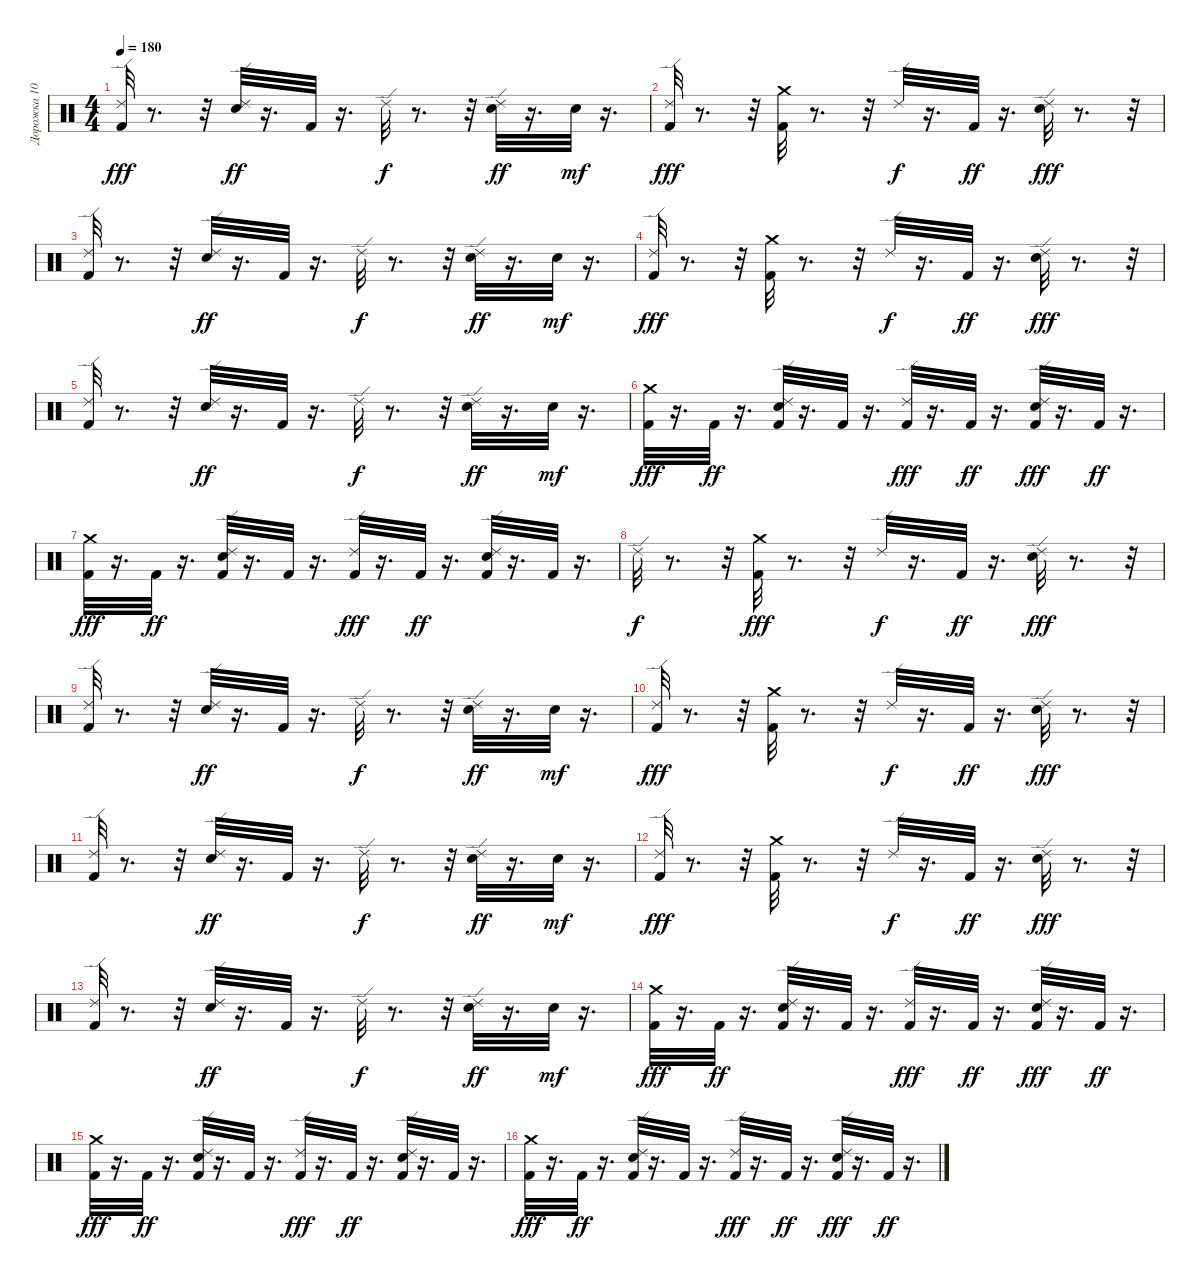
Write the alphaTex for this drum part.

\track ("Дорожка 10" "Дорожка 10") {instrument percussion}
\staff {score}
\articulation defaults
\ts (4 4)
\tempo 180
\clef neutral
\ks c
("Kick (hit) 2" "Ride (edge) 2").32{dy fff} r.8{d} r.32 ("Snare (hit) 2" "Ride (edge) 2").32{dy ff} r.16{d} "Kick (hit) 2".32 r.16{d} "Ride (edge) 2".32{dy f} r.8{d} r.32 ("Snare (hit) 2" "Ride (edge) 2").32{dy ff} r.16{d} "Snare (hit) 2".32{dy mf} r.16{d} |
("Ride (edge) 2" "Kick (hit) 2").32{dy fff} r.8{d} r.32 ("Kick (hit) 2" "Crash medium (hit)").32 r.8{d} r.32 "Ride (edge) 2".32{dy f} r.16{d} "Kick (hit) 2".32{dy ff} r.16{d} ("Snare (hit) 2" "Ride (edge) 2").32{dy fff} r.8{d} r.32 |
("Kick (hit) 2" "Ride (edge) 2").32 r.8{d} r.32 ("Snare (hit) 2" "Ride (edge) 2").32{dy ff} r.16{d} "Kick (hit) 2".32 r.16{d} "Ride (edge) 2".32{dy f} r.8{d} r.32 ("Snare (hit) 2" "Ride (edge) 2").32{dy ff} r.16{d} "Snare (hit) 2".32{dy mf} r.16{d} |
("Ride (edge) 2" "Kick (hit) 2").32{dy fff} r.8{d} r.32 ("Kick (hit) 2" "Crash medium (hit)").32 r.8{d} r.32 "Ride (edge) 2".32{dy f} r.16{d} "Kick (hit) 2".32{dy ff} r.16{d} ("Snare (hit) 2" "Ride (edge) 2").32{dy fff} r.8{d} r.32 |
("Kick (hit) 2" "Ride (edge) 2").32 r.8{d} r.32 ("Snare (hit) 2" "Ride (edge) 2").32{dy ff} r.16{d} "Kick (hit) 2".32 r.16{d} "Ride (edge) 2".32{dy f} r.8{d} r.32 ("Snare (hit) 2" "Ride (edge) 2").32{dy ff} r.16{d} "Snare (hit) 2".32{dy mf} r.16{d} |
("Crash medium (hit)" "Kick (hit) 2").32{dy fff} r.16{d} "Kick (hit) 2".32{dy ff} r.16{d} ("Kick (hit) 2" "Snare (hit) 2" "Ride (edge) 2").32 r.16{d} "Kick (hit) 2".32 r.16{d} ("Kick (hit) 2" "Ride (edge) 2").32{dy fff} r.16{d} "Kick (hit) 2".32{dy ff} r.16{d} ("Kick (hit) 2" "Snare (hit) 2" "Ride (edge) 2").32{dy fff} r.16{d} "Kick (hit) 2".32{dy ff} r.16{d} |
("Kick (hit) 2" "Crash medium (hit)").32{dy fff} r.16{d} "Kick (hit) 2".32{dy ff} r.16{d} ("Kick (hit) 2" "Snare (hit) 2" "Ride (edge) 2").32 r.16{d} "Kick (hit) 2".32 r.16{d} ("Kick (hit) 2" "Ride (edge) 2").32{dy fff} r.16{d} "Kick (hit) 2".32{dy ff} r.16{d} ("Kick (hit) 2" "Snare (hit) 2" "Ride (edge) 2").32 r.16{d} "Kick (hit) 2".32 r.16{d} |
"Ride (edge) 2".32{dy f} r.8{d} r.32 ("Kick (hit) 2" "Crash medium (hit)").32{dy fff} r.8{d} r.32 "Ride (edge) 2".32{dy f} r.16{d} "Kick (hit) 2".32{dy ff} r.16{d} ("Snare (hit) 2" "Ride (edge) 2").32{dy fff} r.8{d} r.32 |
("Kick (hit) 2" "Ride (edge) 2").32 r.8{d} r.32 ("Snare (hit) 2" "Ride (edge) 2").32{dy ff} r.16{d} "Kick (hit) 2".32 r.16{d} "Ride (edge) 2".32{dy f} r.8{d} r.32 ("Snare (hit) 2" "Ride (edge) 2").32{dy ff} r.16{d} "Snare (hit) 2".32{dy mf} r.16{d} |
("Ride (edge) 2" "Kick (hit) 2").32{dy fff} r.8{d} r.32 ("Kick (hit) 2" "Crash medium (hit)").32 r.8{d} r.32 "Ride (edge) 2".32{dy f} r.16{d} "Kick (hit) 2".32{dy ff} r.16{d} ("Snare (hit) 2" "Ride (edge) 2").32{dy fff} r.8{d} r.32 |
("Kick (hit) 2" "Ride (edge) 2").32 r.8{d} r.32 ("Snare (hit) 2" "Ride (edge) 2").32{dy ff} r.16{d} "Kick (hit) 2".32 r.16{d} "Ride (edge) 2".32{dy f} r.8{d} r.32 ("Snare (hit) 2" "Ride (edge) 2").32{dy ff} r.16{d} "Snare (hit) 2".32{dy mf} r.16{d} |
("Ride (edge) 2" "Kick (hit) 2").32{dy fff} r.8{d} r.32 ("Kick (hit) 2" "Crash medium (hit)").32 r.8{d} r.32 "Ride (edge) 2".32{dy f} r.16{d} "Kick (hit) 2".32{dy ff} r.16{d} ("Snare (hit) 2" "Ride (edge) 2").32{dy fff} r.8{d} r.32 |
("Kick (hit) 2" "Ride (edge) 2").32 r.8{d} r.32 ("Snare (hit) 2" "Ride (edge) 2").32{dy ff} r.16{d} "Kick (hit) 2".32 r.16{d} "Ride (edge) 2".32{dy f} r.8{d} r.32 ("Snare (hit) 2" "Ride (edge) 2").32{dy ff} r.16{d} "Snare (hit) 2".32{dy mf} r.16{d} |
("Crash medium (hit)" "Kick (hit) 2").32{dy fff} r.16{d} "Kick (hit) 2".32{dy ff} r.16{d} ("Kick (hit) 2" "Snare (hit) 2" "Ride (edge) 2").32 r.16{d} "Kick (hit) 2".32 r.16{d} ("Kick (hit) 2" "Ride (edge) 2").32{dy fff} r.16{d} "Kick (hit) 2".32{dy ff} r.16{d} ("Kick (hit) 2" "Snare (hit) 2" "Ride (edge) 2").32{dy fff} r.16{d} "Kick (hit) 2".32{dy ff} r.16{d} |
("Kick (hit) 2" "Crash medium (hit)").32{dy fff} r.16{d} "Kick (hit) 2".32{dy ff} r.16{d} ("Kick (hit) 2" "Snare (hit) 2" "Ride (edge) 2").32 r.16{d} "Kick (hit) 2".32 r.16{d} ("Kick (hit) 2" "Ride (edge) 2").32{dy fff} r.16{d} "Kick (hit) 2".32{dy ff} r.16{d} ("Kick (hit) 2" "Snare (hit) 2" "Ride (edge) 2").32 r.16{d} "Kick (hit) 2".32 r.16{d} |
("Crash medium (hit)" "Kick (hit) 2").32{dy fff} r.16{d} "Kick (hit) 2".32{dy ff} r.16{d} ("Kick (hit) 2" "Snare (hit) 2" "Ride (edge) 2").32 r.16{d} "Kick (hit) 2".32 r.16{d} ("Kick (hit) 2" "Ride (edge) 2").32{dy fff} r.16{d} "Kick (hit) 2".32{dy ff} r.16{d} ("Kick (hit) 2" "Snare (hit) 2" "Ride (edge) 2").32{dy fff} r.16{d} "Kick (hit) 2".32{dy ff} r.16{d}
